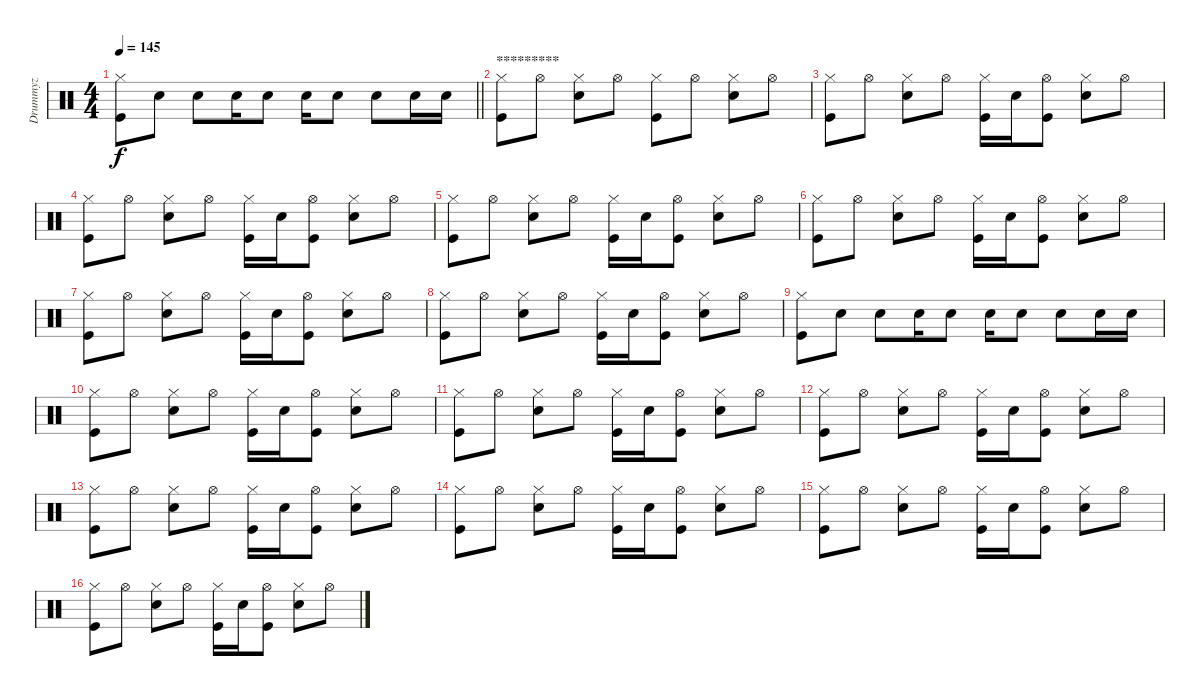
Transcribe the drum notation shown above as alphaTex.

\track ("Drummyz" "Drummyz") {instrument percussion}
\staff {score}
\articulation defaults
\ts (4 4)
\tempo 145
\clef neutral
\barLineRight lightlight
\ks c
("Kick (hit)" "Hi-Hat (closed)").8{dy f} "Snare (hit) 2".8 "Snare (hit) 2".8 "Snare (hit) 2".16 "Snare (hit) 2".8 "Snare (hit) 2".16 "Snare (hit) 2".8 "Snare (hit) 2".8 "Snare (hit) 2".16 "Snare (hit) 2".16 |
\section ("" "*********")
("Kick (hit)" "Hi-Hat (closed)").8 "Hi-Hat (open)".8 ("Snare (hit) 2" "Hi-Hat (closed)").8 "Hi-Hat (open)".8 ("Kick (hit)" "Hi-Hat (closed)").8 "Hi-Hat (open)".8 ("Snare (hit) 2" "Hi-Hat (closed)").8 "Hi-Hat (open)".8 |
("Kick (hit)" "Hi-Hat (closed)").8 "Hi-Hat (open)".8 ("Snare (hit) 2" "Hi-Hat (closed)").8 "Hi-Hat (open)".8 ("Kick (hit)" "Hi-Hat (closed)").16 "Snare (hit) 2".16 ("Kick (hit)" "Hi-Hat (open)").8 ("Snare (hit) 2" "Hi-Hat (closed)").8 "Hi-Hat (open)".8 |
("Kick (hit)" "Hi-Hat (closed)").8 "Hi-Hat (open)".8 ("Snare (hit) 2" "Hi-Hat (closed)").8 "Hi-Hat (open)".8 ("Kick (hit)" "Hi-Hat (closed)").16 "Snare (hit) 2".16 ("Kick (hit)" "Hi-Hat (open)").8 ("Snare (hit) 2" "Hi-Hat (closed)").8 "Hi-Hat (open)".8 |
("Kick (hit)" "Hi-Hat (closed)").8 "Hi-Hat (open)".8 ("Snare (hit) 2" "Hi-Hat (closed)").8 "Hi-Hat (open)".8 ("Kick (hit)" "Hi-Hat (closed)").16 "Snare (hit) 2".16 ("Kick (hit)" "Hi-Hat (open)").8 ("Snare (hit) 2" "Hi-Hat (closed)").8 "Hi-Hat (open)".8 |
("Kick (hit)" "Hi-Hat (closed)").8 "Hi-Hat (open)".8 ("Snare (hit) 2" "Hi-Hat (closed)").8 "Hi-Hat (open)".8 ("Kick (hit)" "Hi-Hat (closed)").16 "Snare (hit) 2".16 ("Kick (hit)" "Hi-Hat (open)").8 ("Snare (hit) 2" "Hi-Hat (closed)").8 "Hi-Hat (open)".8 |
("Kick (hit)" "Hi-Hat (closed)").8 "Hi-Hat (open)".8 ("Snare (hit) 2" "Hi-Hat (closed)").8 "Hi-Hat (open)".8 ("Kick (hit)" "Hi-Hat (closed)").16 "Snare (hit) 2".16 ("Kick (hit)" "Hi-Hat (open)").8 ("Snare (hit) 2" "Hi-Hat (closed)").8 "Hi-Hat (open)".8 |
("Kick (hit)" "Hi-Hat (closed)").8 "Hi-Hat (open)".8 ("Snare (hit) 2" "Hi-Hat (closed)").8 "Hi-Hat (open)".8 ("Kick (hit)" "Hi-Hat (closed)").16 "Snare (hit) 2".16 ("Kick (hit)" "Hi-Hat (open)").8 ("Snare (hit) 2" "Hi-Hat (closed)").8 "Hi-Hat (open)".8 |
("Kick (hit)" "Hi-Hat (closed)").8 "Snare (hit) 2".8 "Snare (hit) 2".8 "Snare (hit) 2".16 "Snare (hit) 2".8 "Snare (hit) 2".16 "Snare (hit) 2".8 "Snare (hit) 2".8 "Snare (hit) 2".16 "Snare (hit) 2".16 |
("Kick (hit)" "Hi-Hat (closed)").8 "Hi-Hat (open)".8 ("Snare (hit) 2" "Hi-Hat (closed)").8 "Hi-Hat (open)".8 ("Kick (hit)" "Hi-Hat (closed)").16 "Snare (hit) 2".16 ("Kick (hit)" "Hi-Hat (open)").8 ("Snare (hit) 2" "Hi-Hat (closed)").8 "Hi-Hat (open)".8 |
("Kick (hit)" "Hi-Hat (closed)").8 "Hi-Hat (open)".8 ("Snare (hit) 2" "Hi-Hat (closed)").8 "Hi-Hat (open)".8 ("Kick (hit)" "Hi-Hat (closed)").16 "Snare (hit) 2".16 ("Kick (hit)" "Hi-Hat (open)").8 ("Snare (hit) 2" "Hi-Hat (closed)").8 "Hi-Hat (open)".8 |
("Kick (hit)" "Hi-Hat (closed)").8 "Hi-Hat (open)".8 ("Snare (hit) 2" "Hi-Hat (closed)").8 "Hi-Hat (open)".8 ("Kick (hit)" "Hi-Hat (closed)").16 "Snare (hit) 2".16 ("Kick (hit)" "Hi-Hat (open)").8 ("Snare (hit) 2" "Hi-Hat (closed)").8 "Hi-Hat (open)".8 |
("Kick (hit)" "Hi-Hat (closed)").8 "Hi-Hat (open)".8 ("Snare (hit) 2" "Hi-Hat (closed)").8 "Hi-Hat (open)".8 ("Kick (hit)" "Hi-Hat (closed)").16 "Snare (hit) 2".16 ("Kick (hit)" "Hi-Hat (open)").8 ("Snare (hit) 2" "Hi-Hat (closed)").8 "Hi-Hat (open)".8 |
("Kick (hit)" "Hi-Hat (closed)").8 "Hi-Hat (open)".8 ("Snare (hit) 2" "Hi-Hat (closed)").8 "Hi-Hat (open)".8 ("Kick (hit)" "Hi-Hat (closed)").16 "Snare (hit) 2".16 ("Kick (hit)" "Hi-Hat (open)").8 ("Snare (hit) 2" "Hi-Hat (closed)").8 "Hi-Hat (open)".8 |
("Kick (hit)" "Hi-Hat (closed)").8 "Hi-Hat (open)".8 ("Snare (hit) 2" "Hi-Hat (closed)").8 "Hi-Hat (open)".8 ("Kick (hit)" "Hi-Hat (closed)").16 "Snare (hit) 2".16 ("Kick (hit)" "Hi-Hat (open)").8 ("Snare (hit) 2" "Hi-Hat (closed)").8 "Hi-Hat (open)".8 |
("Kick (hit)" "Hi-Hat (closed)").8 "Hi-Hat (open)".8 ("Snare (hit) 2" "Hi-Hat (closed)").8 "Hi-Hat (open)".8 ("Kick (hit)" "Hi-Hat (closed)").16 "Snare (hit) 2".16 ("Kick (hit)" "Hi-Hat (open)").8 ("Snare (hit) 2" "Hi-Hat (closed)").8 "Hi-Hat (open)".8
